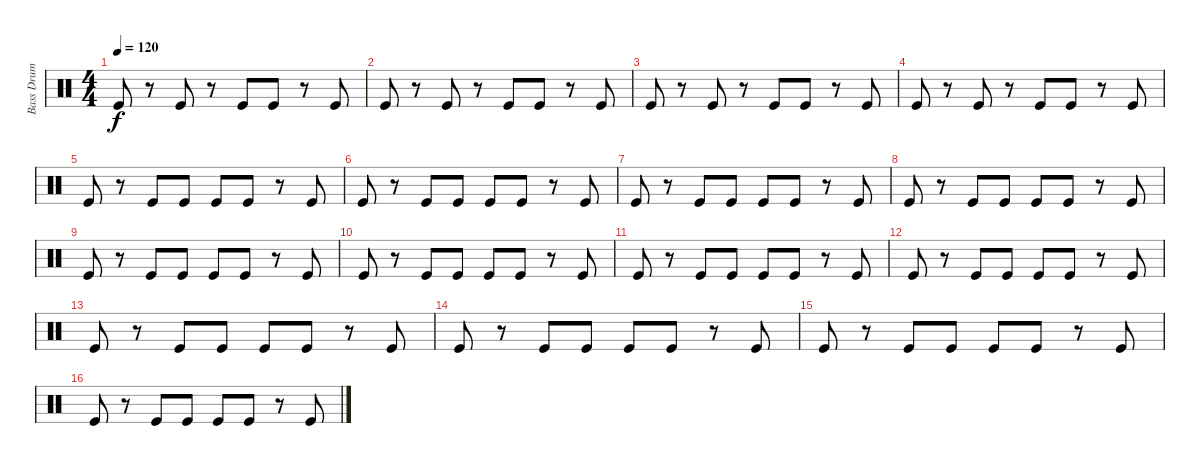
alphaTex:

\track ("Bass Drum           " "Bass Drum ") {instrument percussion}
\staff {score}
\articulation defaults
\ts (4 4)
\tempo 120
\clef neutral
\ks c "Kick (hit)".8{dy f}
r.8 "Kick (hit)".8 r.8 "Kick (hit)".8 "Kick (hit)".8 r.8 "Kick (hit)".8 |
"Kick (hit)".8 r.8 "Kick (hit)".8 r.8 "Kick (hit)".8 "Kick (hit)".8 r.8 "Kick (hit)".8 |
"Kick (hit)".8 r.8 "Kick (hit)".8 r.8 "Kick (hit)".8 "Kick (hit)".8 r.8 "Kick (hit)".8 |
"Kick (hit)".8 r.8 "Kick (hit)".8 r.8 "Kick (hit)".8 "Kick (hit)".8 r.8 "Kick (hit)".8 |
"Kick (hit)".8 r.8 "Kick (hit)".8 "Kick (hit)".8 "Kick (hit)".8 "Kick (hit)".8 r.8 "Kick (hit)".8 |
"Kick (hit)".8 r.8 "Kick (hit)".8 "Kick (hit)".8 "Kick (hit)".8 "Kick (hit)".8 r.8 "Kick (hit)".8 |
"Kick (hit)".8 r.8 "Kick (hit)".8 "Kick (hit)".8 "Kick (hit)".8 "Kick (hit)".8 r.8 "Kick (hit)".8 |
"Kick (hit)".8 r.8 "Kick (hit)".8 "Kick (hit)".8 "Kick (hit)".8 "Kick (hit)".8 r.8 "Kick (hit)".8 |
"Kick (hit)".8 r.8 "Kick (hit)".8 "Kick (hit)".8 "Kick (hit)".8 "Kick (hit)".8 r.8 "Kick (hit)".8 |
"Kick (hit)".8 r.8 "Kick (hit)".8 "Kick (hit)".8 "Kick (hit)".8 "Kick (hit)".8 r.8 "Kick (hit)".8 |
"Kick (hit)".8 r.8 "Kick (hit)".8 "Kick (hit)".8 "Kick (hit)".8 "Kick (hit)".8 r.8 "Kick (hit)".8 |
"Kick (hit)".8 r.8 "Kick (hit)".8 "Kick (hit)".8 "Kick (hit)".8 "Kick (hit)".8 r.8 "Kick (hit)".8 |
"Kick (hit)".8 r.8 "Kick (hit)".8 "Kick (hit)".8 "Kick (hit)".8 "Kick (hit)".8 r.8 "Kick (hit)".8 |
"Kick (hit)".8 r.8 "Kick (hit)".8 "Kick (hit)".8 "Kick (hit)".8 "Kick (hit)".8 r.8 "Kick (hit)".8 |
"Kick (hit)".8 r.8 "Kick (hit)".8 "Kick (hit)".8 "Kick (hit)".8 "Kick (hit)".8 r.8 "Kick (hit)".8 |
"Kick (hit)".8 r.8 "Kick (hit)".8 "Kick (hit)".8 "Kick (hit)".8 "Kick (hit)".8 r.8 "Kick (hit)".8
